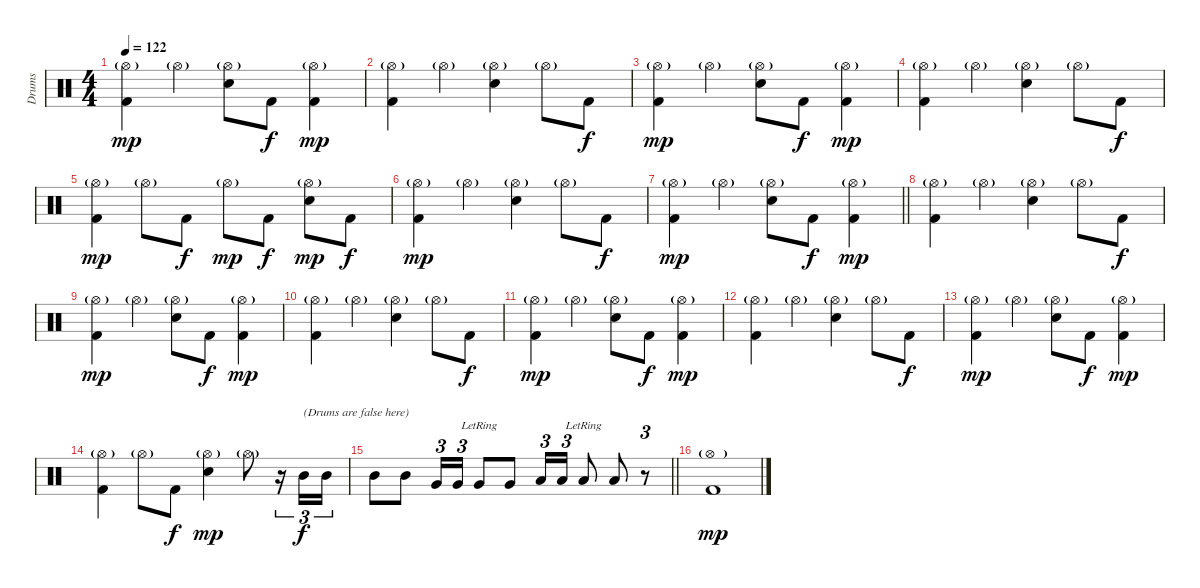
\track ("Drums" "Drums") {instrument percussion}
\staff {score}
\articulation defaults
\ts (4 4)
\tempo 122
\clef neutral
\ks c
("Hi-Hat (open)"{g} "Kick (hit) 2").4{dy mp} "Hi-Hat (open)"{g}.4 ("Hi-Hat (open)"{g} "Electric Snare (hit)").8 "Kick (hit) 2".8{dy f} ("Hi-Hat (open)"{g} "Kick (hit) 2").4{dy mp} |
("Hi-Hat (open)"{g} "Kick (hit) 2").4 "Hi-Hat (open)"{g}.4 ("Hi-Hat (open)"{g} "Electric Snare (hit)").4 "Hi-Hat (open)"{g}.8 "Kick (hit) 2".8{dy f} |
("Hi-Hat (open)"{g} "Kick (hit) 2").4{dy mp} "Hi-Hat (open)"{g}.4 ("Hi-Hat (open)"{g} "Electric Snare (hit)").8 "Kick (hit) 2".8{dy f} ("Hi-Hat (open)"{g} "Kick (hit) 2").4{dy mp} |
("Hi-Hat (open)"{g} "Kick (hit) 2").4 "Hi-Hat (open)"{g}.4 ("Hi-Hat (open)"{g} "Electric Snare (hit)").4 "Hi-Hat (open)"{g}.8 "Kick (hit) 2".8{dy f} |
("Hi-Hat (open)"{g} "Kick (hit) 2").4{dy mp} "Hi-Hat (open)"{g}.8 "Kick (hit) 2".8{dy f} "Hi-Hat (open)"{g}.8{dy mp} "Kick (hit) 2".8{dy f} ("Hi-Hat (open)"{g} "Electric Snare (hit)").8{dy mp} "Kick (hit) 2".8{dy f} |
("Hi-Hat (open)"{g} "Kick (hit) 2").4{dy mp} "Hi-Hat (open)"{g}.4 ("Hi-Hat (open)"{g} "Electric Snare (hit)").4 "Hi-Hat (open)"{g}.8 "Kick (hit) 2".8{dy f} |
\barLineRight lightlight
("Hi-Hat (open)"{g} "Kick (hit) 2").4{dy mp} "Hi-Hat (open)"{g}.4 ("Hi-Hat (open)"{g} "Electric Snare (hit)").8 "Kick (hit) 2".8{dy f} ("Hi-Hat (open)"{g} "Kick (hit) 2").4{dy mp} |
("Hi-Hat (open)"{g} "Kick (hit) 2").4 "Hi-Hat (open)"{g}.4 ("Hi-Hat (open)"{g} "Electric Snare (hit)").4 "Hi-Hat (open)"{g}.8 "Kick (hit) 2".8{dy f} |
("Hi-Hat (open)"{g} "Kick (hit) 2").4{dy mp} "Hi-Hat (open)"{g}.4 ("Hi-Hat (open)"{g} "Electric Snare (hit)").8 "Kick (hit) 2".8{dy f} ("Hi-Hat (open)"{g} "Kick (hit) 2").4{dy mp} |
("Hi-Hat (open)"{g} "Kick (hit) 2").4 "Hi-Hat (open)"{g}.4 ("Hi-Hat (open)"{g} "Electric Snare (hit)").4 "Hi-Hat (open)"{g}.8 "Kick (hit) 2".8{dy f} |
("Hi-Hat (open)"{g} "Kick (hit) 2").4{dy mp} "Hi-Hat (open)"{g}.4 ("Hi-Hat (open)"{g} "Electric Snare (hit)").8 "Kick (hit) 2".8{dy f} ("Hi-Hat (open)"{g} "Kick (hit) 2").4{dy mp} |
("Hi-Hat (open)"{g} "Kick (hit) 2").4 "Hi-Hat (open)"{g}.4 ("Hi-Hat (open)"{g} "Electric Snare (hit)").4 "Hi-Hat (open)"{g}.8 "Kick (hit) 2".8{dy f} |
("Hi-Hat (open)"{g} "Kick (hit) 2").4{dy mp} "Hi-Hat (open)"{g}.4 ("Hi-Hat (open)"{g} "Electric Snare (hit)").8 "Kick (hit) 2".8{dy f} ("Hi-Hat (open)"{g} "Kick (hit) 2").4{dy mp} |
("Hi-Hat (open)"{g} "Kick (hit) 2").4 "Hi-Hat (open)"{g}.8 "Kick (hit) 2".8{dy f} ("Hi-Hat (open)"{g} "Electric Snare (hit)").4{dy mp} "Hi-Hat (open)"{g}.8 r.16{tu (3 2)} "Mid Tom (hit)".16{tu (3 2) txt "(Drums are false here)" dy f} "Mid Tom (hit)".16{tu (3 2)} |
\barLineRight lightlight "Mid Tom (hit)".8 "Mid Tom (hit)".8 "Very Low Tom (hit)".16{tu (3 2)} "Very Low Tom (hit)".16{tu (3 2)} "Very Low Tom (hit)"{lr}.8 "Very Low Tom (hit)".8 "Low Floor Tom (hit)".16{tu (3 2)} "Low Floor Tom (hit)".16{tu (3 2)} "Low Floor Tom (hit)"{lr}.8 "Low Floor Tom (hit)".8
r.8{tu (3 2)} |
("Hi-Hat (open)"{g} "Kick (hit) 2").1{dy mp}
